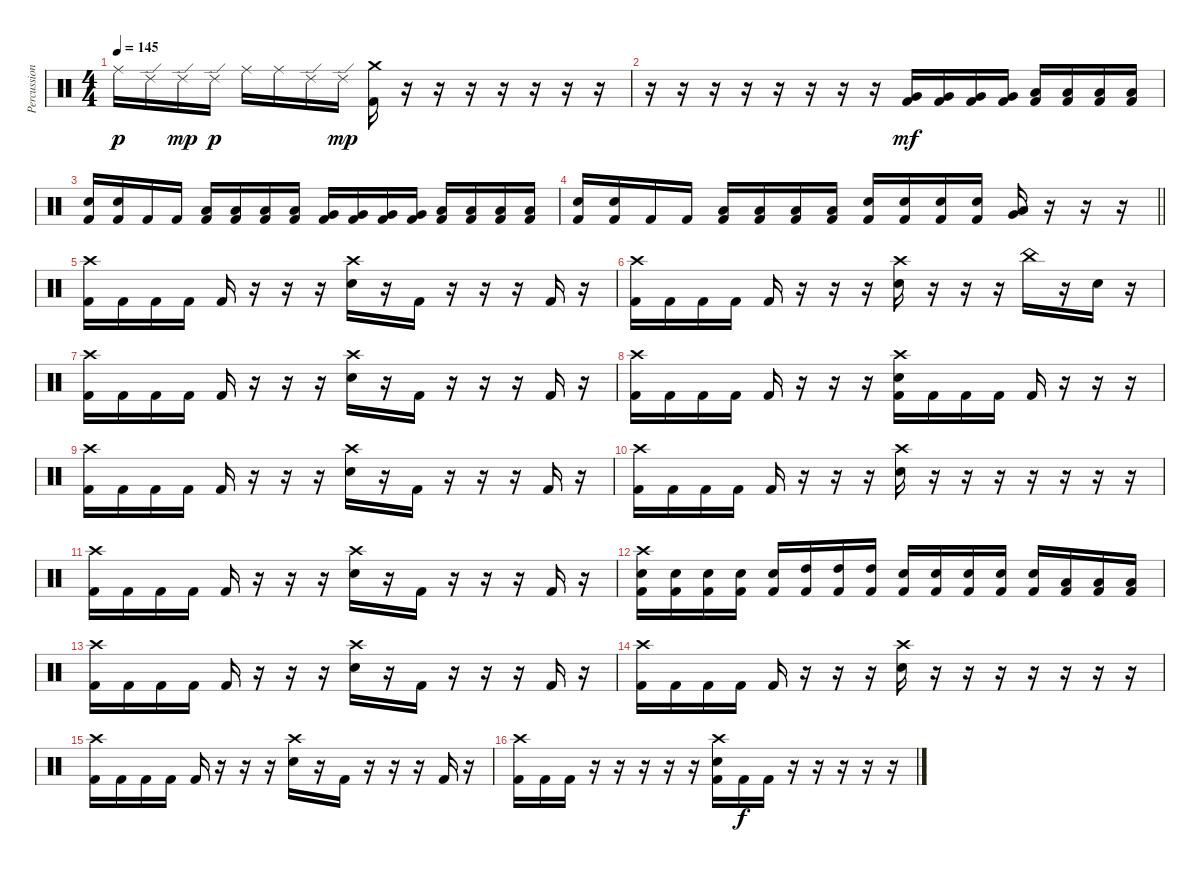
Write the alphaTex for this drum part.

\track ("Percussion" "Percussion") {instrument percussion}
\staff {score}
\articulation defaults
\ts (4 4)
\tempo 145
\clef neutral
\ks c "Ride (middle)".16{dy p} "Ride (edge) 2".16 "Ride (edge) 2".16{dy mp} "Ride (edge) 2".16{dy p} "Ride (middle)".16 "Ride (middle)".16 "Ride (edge) 2".16 "Ride (edge) 2".16{dy mp}
("Crash medium (hit)" "Kick (hit) 2").16 r.16 r.16 r.16 r.16 r.16 r.16 r.16 |
r.16 r.16 r.16 r.16 r.16 r.16 r.16 r.16 ("Very Low Tom (hit)" "Kick (hit) 2").16{dy mf} ("Very Low Tom (hit)" "Kick (hit) 2").16 ("Very Low Tom (hit)" "Kick (hit) 2").16 ("Very Low Tom (hit)" "Kick (hit) 2").16 ("Low Floor Tom (hit)" "Kick (hit) 2").16 ("Low Floor Tom (hit)" "Kick (hit) 2").16 ("Low Floor Tom (hit)" "Kick (hit) 2").16 ("Low Floor Tom (hit)" "Kick (hit) 2").16 |
("Snare (hit) 2" "Kick (hit) 2").16 ("Snare (hit) 2" "Kick (hit) 2").16 "Kick (hit) 2".16 "Kick (hit) 2".16 ("Low Tom (hit)" "Kick (hit) 2").16 ("Low Tom (hit)" "Kick (hit) 2").16 ("Low Tom (hit)" "Kick (hit) 2").16 ("Low Tom (hit)" "Kick (hit) 2").16 ("Very Low Tom (hit)" "Kick (hit) 2").16 ("Very Low Tom (hit)" "Kick (hit) 2").16 ("Very Low Tom (hit)" "Kick (hit) 2").16 ("Very Low Tom (hit)" "Kick (hit) 2").16 ("Low Floor Tom (hit)" "Kick (hit) 2").16 ("Low Floor Tom (hit)" "Kick (hit) 2").16 ("Low Floor Tom (hit)" "Kick (hit) 2").16 ("Low Floor Tom (hit)" "Kick (hit) 2").16 |
\barLineRight lightlight
("Snare (hit) 2" "Kick (hit) 2").16 ("Snare (hit) 2" "Kick (hit) 2").16 "Kick (hit) 2".16 "Kick (hit) 2".16 ("Low Tom (hit)" "Kick (hit) 2").16 ("Low Tom (hit)" "Kick (hit) 2").16 ("Low Tom (hit)" "Kick (hit) 2").16 ("Low Tom (hit)" "Kick (hit) 2").16 ("Snare (hit) 2" "Kick (hit) 2").16 ("Snare (hit) 2" "Kick (hit) 2").16 ("Snare (hit) 2" "Kick (hit) 2").16 ("Snare (hit) 2" "Kick (hit) 2").16 ("Low Tom (hit)" "Very Low Tom (hit)").16 r.16 r.16 r.16 |
\section ("" "")
("Crash high (hit)" "Kick (hit) 2").16 "Kick (hit) 2".16 "Kick (hit) 2".16 "Kick (hit) 2".16 "Kick (hit) 2".16 r.16 r.16 r.16 ("Crash high (hit)" "Snare (hit) 2").16 r.16 "Kick (hit) 2".16 r.16 r.16 r.16 "Kick (hit) 2".16 r.16 |
("Crash high (hit)" "Kick (hit) 2").16 "Kick (hit) 2".16 "Kick (hit) 2".16 "Kick (hit) 2".16 "Kick (hit) 2".16 r.16 r.16 r.16 ("Crash high (hit)" "Snare (hit) 2").16 r.16 r.16 r.16 "China (hit)".16 r.16 "Snare (hit) 2".16 r.16 |
("Crash high (hit)" "Kick (hit) 2").16 "Kick (hit) 2".16 "Kick (hit) 2".16 "Kick (hit) 2".16 "Kick (hit) 2".16 r.16 r.16 r.16 ("Crash high (hit)" "Snare (hit) 2").16 r.16 "Kick (hit) 2".16 r.16 r.16 r.16 "Kick (hit) 2".16 r.16 |
("Crash high (hit)" "Kick (hit) 2").16 "Kick (hit) 2".16 "Kick (hit) 2".16 "Kick (hit) 2".16 "Kick (hit) 2".16 r.16 r.16 r.16 ("Crash high (hit)" "Snare (hit) 2" "Kick (hit) 2").16 "Kick (hit) 2".16 "Kick (hit) 2".16 "Kick (hit) 2".16 "Kick (hit) 2".16 r.16 r.16 r.16 |
("Crash high (hit)" "Kick (hit) 2").16 "Kick (hit) 2".16 "Kick (hit) 2".16 "Kick (hit) 2".16 "Kick (hit) 2".16 r.16 r.16 r.16 ("Crash high (hit)" "Snare (hit) 2").16 r.16 "Kick (hit) 2".16 r.16 r.16 r.16 "Kick (hit) 2".16 r.16 |
("Crash high (hit)" "Kick (hit) 2").16 "Kick (hit) 2".16 "Kick (hit) 2".16 "Kick (hit) 2".16 "Kick (hit) 2".16 r.16 r.16 r.16 ("Crash high (hit)" "Snare (hit) 2").16 r.16 r.16 r.16 r.16 r.16 r.16 r.16 |
("Crash high (hit)" "Kick (hit) 2").16 "Kick (hit) 2".16 "Kick (hit) 2".16 "Kick (hit) 2".16 "Kick (hit) 2".16 r.16 r.16 r.16 ("Crash high (hit)" "Snare (hit) 2").16 r.16 "Kick (hit) 2".16 r.16 r.16 r.16 "Kick (hit) 2".16 r.16 |
("Crash high (hit)" "Snare (hit) 2" "Kick (hit) 2").16 ("Snare (hit) 2" "Kick (hit) 2").16 ("Snare (hit) 2" "Kick (hit) 2").16 ("Snare (hit) 2" "Kick (hit) 2").16 ("Snare (hit) 2" "Kick (hit) 2").16 ("High Tom (hit)" "Kick (hit) 2").16 ("High Tom (hit)" "Kick (hit) 2").16 ("High Tom (hit)" "Kick (hit) 2").16 ("Snare (hit) 2" "Kick (hit) 2").16 ("Snare (hit) 2" "Kick (hit) 2").16 ("Snare (hit) 2" "Kick (hit) 2").16 ("Snare (hit) 2" "Kick (hit) 2").16 ("Snare (hit) 2" "Kick (hit) 2").16 ("Low Tom (hit)" "Kick (hit) 2").16 ("Low Tom (hit)" "Kick (hit) 2").16 ("Low Tom (hit)" "Kick (hit) 2").16 |
("Crash high (hit)" "Kick (hit) 2").16 "Kick (hit) 2".16 "Kick (hit) 2".16 "Kick (hit) 2".16 "Kick (hit) 2".16 r.16 r.16 r.16 ("Crash high (hit)" "Snare (hit) 2").16 r.16 "Kick (hit) 2".16 r.16 r.16 r.16 "Kick (hit) 2".16 r.16 |
("Crash high (hit)" "Kick (hit) 2").16 "Kick (hit) 2".16 "Kick (hit) 2".16 "Kick (hit) 2".16 "Kick (hit) 2".16 r.16 r.16 r.16 ("Crash high (hit)" "Snare (hit) 2").16 r.16 r.16 r.16 r.16 r.16 r.16 r.16 |
("Crash high (hit)" "Kick (hit) 2").16 "Kick (hit) 2".16 "Kick (hit) 2".16 "Kick (hit) 2".16 "Kick (hit) 2".16 r.16 r.16 r.16 ("Crash high (hit)" "Snare (hit) 2").16 r.16 "Kick (hit) 2".16 r.16 r.16 r.16 "Kick (hit) 2".16 r.16 |
("Crash high (hit)" "Kick (hit) 2").16 "Kick (hit) 2".16 "Kick (hit) 2".16 r.16 r.16 r.16 r.16 r.16 ("Crash high (hit)" "Snare (hit) 2" "Kick (hit) 2").16 "Kick (hit) 2".16{dy f} "Kick (hit) 2".16 r.16 r.16 r.16 r.16 r.16
